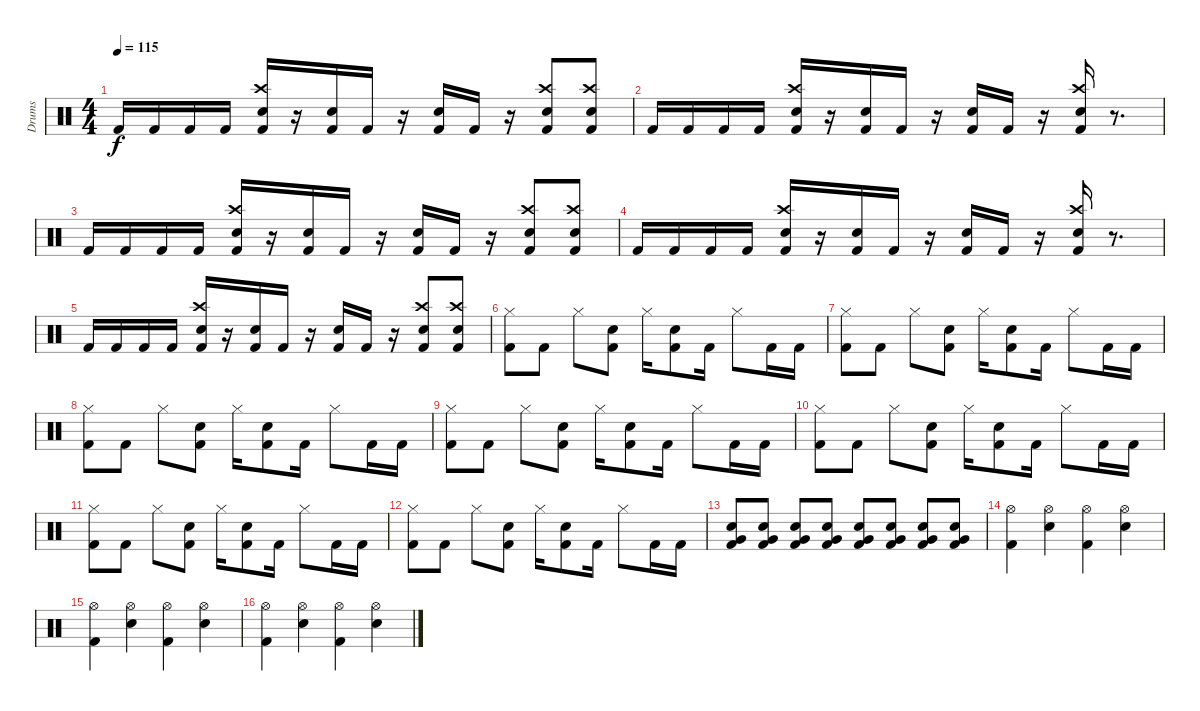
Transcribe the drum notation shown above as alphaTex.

\track ("Drums" "Drums") {instrument percussion}
\staff {score}
\articulation defaults
\ts (4 4)
\tempo 115
\clef neutral
\ks c "Kick (hit) 2".16{dy f} "Kick (hit) 2".16 "Kick (hit) 2".16 "Kick (hit) 2".16
("Crash high (hit)" "Snare (hit) 2" "Kick (hit) 2").16 r.16 ("Snare (hit) 2" "Kick (hit) 2").16 "Kick (hit) 2".16 r.16 ("Snare (hit) 2" "Kick (hit) 2").16 "Kick (hit) 2".16 r.16 ("Crash high (hit)" "Snare (hit) 2" "Kick (hit) 2").8 ("Crash high (hit)" "Snare (hit) 2" "Kick (hit) 2").8 |
"Kick (hit) 2".16 "Kick (hit) 2".16 "Kick (hit) 2".16 "Kick (hit) 2".16 ("Crash high (hit)" "Snare (hit) 2" "Kick (hit) 2").16 r.16 ("Snare (hit) 2" "Kick (hit) 2").16 "Kick (hit) 2".16 r.16 ("Snare (hit) 2" "Kick (hit) 2").16 "Kick (hit) 2".16 r.16 ("Crash high (hit)" "Snare (hit) 2" "Kick (hit) 2").16 r.8{d} |
"Kick (hit) 2".16 "Kick (hit) 2".16 "Kick (hit) 2".16 "Kick (hit) 2".16 ("Crash high (hit)" "Snare (hit) 2" "Kick (hit) 2").16 r.16 ("Snare (hit) 2" "Kick (hit) 2").16 "Kick (hit) 2".16 r.16 ("Snare (hit) 2" "Kick (hit) 2").16 "Kick (hit) 2".16 r.16 ("Crash high (hit)" "Snare (hit) 2" "Kick (hit) 2").8 ("Crash high (hit)" "Snare (hit) 2" "Kick (hit) 2").8 |
"Kick (hit) 2".16 "Kick (hit) 2".16 "Kick (hit) 2".16 "Kick (hit) 2".16 ("Crash high (hit)" "Snare (hit) 2" "Kick (hit) 2").16 r.16 ("Snare (hit) 2" "Kick (hit) 2").16 "Kick (hit) 2".16 r.16 ("Snare (hit) 2" "Kick (hit) 2").16 "Kick (hit) 2".16 r.16 ("Crash high (hit)" "Snare (hit) 2" "Kick (hit) 2").16 r.8{d} |
"Kick (hit) 2".16 "Kick (hit) 2".16 "Kick (hit) 2".16 "Kick (hit) 2".16 ("Crash high (hit)" "Snare (hit) 2" "Kick (hit) 2").16 r.16 ("Snare (hit) 2" "Kick (hit) 2").16 "Kick (hit) 2".16 r.16 ("Snare (hit) 2" "Kick (hit) 2").16 "Kick (hit) 2".16 r.16 ("Crash high (hit)" "Snare (hit) 2" "Kick (hit) 2").8 ("Crash high (hit)" "Snare (hit) 2" "Kick (hit) 2").8 |
("Hi-Hat (closed)" "Kick (hit) 2").8 "Kick (hit) 2".8 "Hi-Hat (closed)".8 ("Snare (hit) 2" "Kick (hit) 2").8 "Hi-Hat (closed)".16 ("Snare (hit) 2" "Kick (hit) 2").8 "Kick (hit) 2".16 "Hi-Hat (closed)".8 "Kick (hit) 2".16 "Kick (hit) 2".16 |
("Hi-Hat (closed)" "Kick (hit) 2").8 "Kick (hit) 2".8 "Hi-Hat (closed)".8 ("Snare (hit) 2" "Kick (hit) 2").8 "Hi-Hat (closed)".16 ("Snare (hit) 2" "Kick (hit) 2").8 "Kick (hit) 2".16 "Hi-Hat (closed)".8 "Kick (hit) 2".16 "Kick (hit) 2".16 |
("Hi-Hat (closed)" "Kick (hit) 2").8 "Kick (hit) 2".8 "Hi-Hat (closed)".8 ("Snare (hit) 2" "Kick (hit) 2").8 "Hi-Hat (closed)".16 ("Snare (hit) 2" "Kick (hit) 2").8 "Kick (hit) 2".16 "Hi-Hat (closed)".8 "Kick (hit) 2".16 "Kick (hit) 2".16 |
("Hi-Hat (closed)" "Kick (hit) 2").8 "Kick (hit) 2".8 "Hi-Hat (closed)".8 ("Snare (hit) 2" "Kick (hit) 2").8 "Hi-Hat (closed)".16 ("Snare (hit) 2" "Kick (hit) 2").8 "Kick (hit) 2".16 "Hi-Hat (closed)".8 "Kick (hit) 2".16 "Kick (hit) 2".16 |
("Hi-Hat (closed)" "Kick (hit) 2").8 "Kick (hit) 2".8 "Hi-Hat (closed)".8 ("Snare (hit) 2" "Kick (hit) 2").8 "Hi-Hat (closed)".16 ("Snare (hit) 2" "Kick (hit) 2").8 "Kick (hit) 2".16 "Hi-Hat (closed)".8 "Kick (hit) 2".16 "Kick (hit) 2".16 |
("Hi-Hat (closed)" "Kick (hit) 2").8 "Kick (hit) 2".8 "Hi-Hat (closed)".8 ("Snare (hit) 2" "Kick (hit) 2").8 "Hi-Hat (closed)".16 ("Snare (hit) 2" "Kick (hit) 2").8 "Kick (hit) 2".16 "Hi-Hat (closed)".8 "Kick (hit) 2".16 "Kick (hit) 2".16 |
("Hi-Hat (closed)" "Kick (hit) 2").8 "Kick (hit) 2".8 "Hi-Hat (closed)".8 ("Snare (hit) 2" "Kick (hit) 2").8 "Hi-Hat (closed)".16 ("Snare (hit) 2" "Kick (hit) 2").8 "Kick (hit) 2".16 "Hi-Hat (closed)".8 "Kick (hit) 2".16 "Kick (hit) 2".16 |
("Very Low Tom (hit)" "Snare (hit) 2" "Kick (hit) 2").8 ("Very Low Tom (hit)" "Snare (hit) 2" "Kick (hit) 2").8 ("Very Low Tom (hit)" "Snare (hit) 2" "Kick (hit) 2").8 ("Very Low Tom (hit)" "Snare (hit) 2" "Kick (hit) 2").8 ("Very Low Tom (hit)" "Snare (hit) 2" "Kick (hit) 2").8 ("Very Low Tom (hit)" "Snare (hit) 2" "Kick (hit) 2").8 ("Very Low Tom (hit)" "Snare (hit) 2" "Kick (hit) 2").8 ("Very Low Tom (hit)" "Snare (hit) 2" "Kick (hit) 2").8 |
("Hi-Hat (open)" "Kick (hit) 2").4 ("Hi-Hat (open)" "Snare (hit) 2").4 ("Hi-Hat (open)" "Kick (hit) 2").4 ("Hi-Hat (open)" "Snare (hit) 2").4 |
("Hi-Hat (open)" "Kick (hit) 2").4 ("Hi-Hat (open)" "Snare (hit) 2").4 ("Hi-Hat (open)" "Kick (hit) 2").4 ("Hi-Hat (open)" "Snare (hit) 2").4 |
("Hi-Hat (open)" "Kick (hit) 2").4 ("Hi-Hat (open)" "Snare (hit) 2").4 ("Hi-Hat (open)" "Kick (hit) 2").4 ("Hi-Hat (open)" "Snare (hit) 2").4
